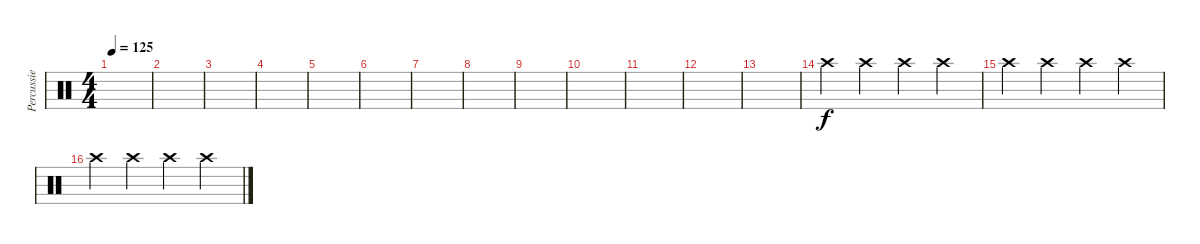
\track ("Percussie" "Percussie") {instrument percussion}
\staff {score}
\articulation defaults
\ts (4 4)
\tempo 125
\clef neutral
\ks c
|
|
|
|
|
|
|
|
|
|
|
|
|
"Crash high (hit)".4 "Crash high (hit)".4 "Crash high (hit)".4 "Crash high (hit)".4 |
"Crash high (hit)".4 "Crash high (hit)".4 "Crash high (hit)".4 "Crash high (hit)".4 |
"Crash high (hit)".4 "Crash high (hit)".4 "Crash high (hit)".4 "Crash high (hit)".4
